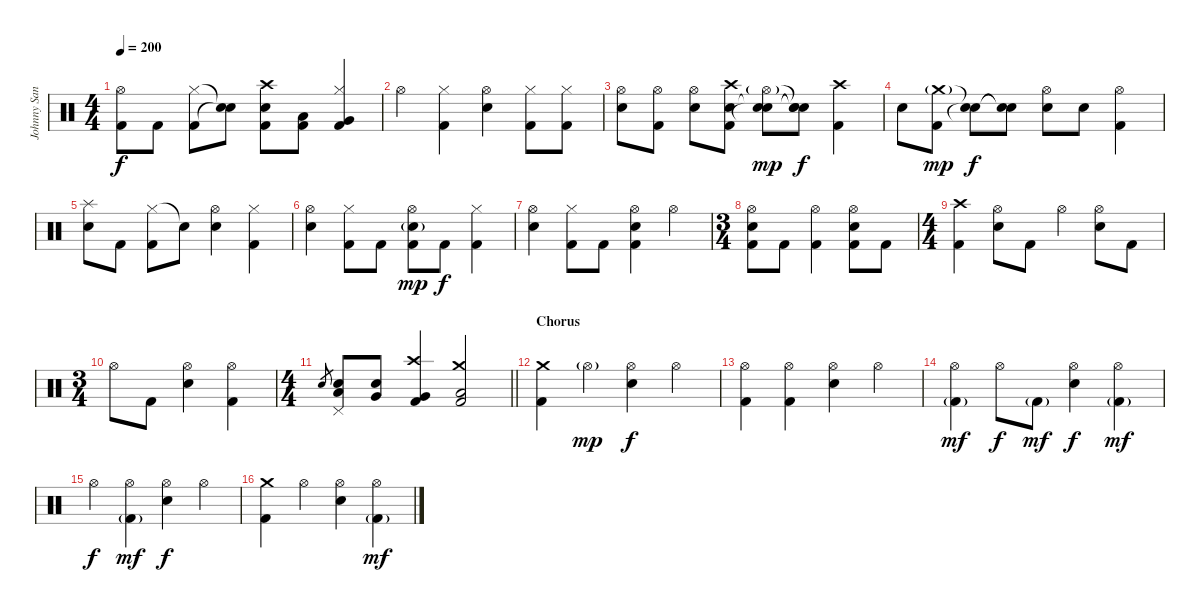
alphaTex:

\track ("Johnny Sandin" "Johnny San") {instrument percussion}
\staff {score}
\articulation defaults
\ts (4 4)
\tempo 200
\clef neutral
\ks c
("Hi-Hat (open)" "Kick (hit) 2").8{dy f} "Kick (hit) 2".8 ("Hi-Hat (closed)" "Kick (hit) 2").8 ("Snare (hit)"{t} "Snare (hit)"{t}).8 ("Crash high (hit)" "Snare (hit) 2" "Kick (hit) 2").8 ("Low Tom (hit)" "Kick (hit) 2").8 ("Hi-Hat (closed)" "Very Low Tom (hit)" "Kick (hit) 2").4 |
"Hi-Hat (open)".4 ("Hi-Hat (closed)" "Kick (hit) 2").4 ("Hi-Hat (open)" "Snare (hit) 2").4 ("Hi-Hat (closed)" "Kick (hit) 2").8 ("Hi-Hat (closed)" "Kick (hit) 2").8 |
("Hi-Hat (open)" "Snare (hit) 2").8 ("Hi-Hat (open)" "Kick (hit) 2").8 ("Hi-Hat (open)" "Snare (hit) 2").8 ("Crash high (hit)" "Snare (hit) 2" "Kick (hit) 2").8 ("Hi-Hat (open)"{g} "Snare (hit)"{t} "Snare (hit)"{t}).8{dy mp} ("Snare (hit)"{t} "Snare (hit)"{t} "Snare (hit)"{t}).8{dy f} ("Crash high (hit)" "Kick (hit) 2").4 |
"Snare (hit) 2".8 ("Crash medium (hit)"{g} "Kick (hit) 2").8{dy mp} ("Snare (hit)"{t} "Snare (hit)"{t}).8{dy f} ("Snare (hit)"{t} "Snare (hit)"{t}).8 ("Hi-Hat (open)" "Snare (hit) 2").8 "Snare (hit) 2".8 ("Hi-Hat (open)" "Kick (hit) 2").4 |
("Splash (hit)" "Snare (hit) 2").8 "Kick (hit) 2".8 ("Hi-Hat (closed)" "Kick (hit) 2").8 "Snare (hit)"{t}.8 ("Hi-Hat (open)" "Snare (hit) 2").4 ("Hi-Hat (closed)" "Kick (hit) 2").4 |
("Hi-Hat (open)" "Snare (hit) 2").4 ("Hi-Hat (closed)" "Kick (hit) 2").8 "Kick (hit) 2".8 ("Hi-Hat (open)" "Snare (hit) 2"{g} "Kick (hit) 2").8{dy mp} "Kick (hit) 2".8{dy f} ("Hi-Hat (closed)" "Kick (hit) 2").4 |
("Hi-Hat (open)" "Snare (hit) 2").4 ("Hi-Hat (closed)" "Kick (hit) 2").8 "Kick (hit) 2".8 ("Hi-Hat (open)" "Snare (hit) 2" "Kick (hit) 2").4 "Hi-Hat (open)".4 |
\ts (3 4)
("Hi-Hat (open)" "Snare (hit) 2" "Kick (hit) 2").8 "Kick (hit) 2".8 ("Hi-Hat (open)" "Kick (hit) 2").4 ("Hi-Hat (open)" "Snare (hit) 2" "Kick (hit) 2").8 "Kick (hit) 2".8 |
\ts (4 4)
("Crash high (hit)" "Kick (hit) 2").4 ("Hi-Hat (open)" "Snare (hit) 2").8 "Kick (hit) 2".8 "Hi-Hat (open)".4 ("Hi-Hat (open)" "Snare (hit) 2").8 "Kick (hit) 2".8 |
\ts (3 4)
"Hi-Hat (open)".8 "Kick (hit) 2".8 ("Hi-Hat (open)" "Snare (hit) 2").4 ("Hi-Hat (open)" "Kick (hit) 2").4 |
\ts (4 4)
\barLineRight lightlight "Snare (hit) 2".8{gr}
("Pedal Hi-Hat (hit)" "Snare (hit) 2" "Low Tom (hit)").8 ("Snare (hit) 2" "Very Low Tom (hit)").8 ("Crash high (hit)" "Very Low Tom (hit)" "Kick (hit) 2").4 ("Crash medium (hit)" "Low Floor Tom (hit)" "Kick (hit) 2").2 |
\section ("" "Chorus")
("Crash medium (hit)" "Kick (hit) 2").4 "Hi-Hat (open)"{g}.4{dy mp} ("Hi-Hat (open)" "Snare (hit) 2").4{dy f} "Hi-Hat (open)".4 |
("Hi-Hat (open)" "Kick (hit) 2").4 ("Hi-Hat (open)" "Kick (hit) 2").4 ("Hi-Hat (open)" "Snare (hit) 2").4 "Hi-Hat (open)".4 |
("Hi-Hat (open)" "Kick (hit) 2"{g}).4{dy mf} "Hi-Hat (open)".8{dy f} "Kick (hit) 2"{g}.8{dy mf} ("Hi-Hat (open)" "Snare (hit) 2").4{dy f} ("Hi-Hat (open)" "Kick (hit) 2"{g}).4{dy mf} |
"Hi-Hat (open)".4{dy f} ("Hi-Hat (open)" "Kick (hit) 2"{g}).4{dy mf} ("Hi-Hat (open)" "Snare (hit) 2").4{dy f} "Hi-Hat (open)".4 |
("Crash medium (hit)" "Kick (hit) 2").4 "Hi-Hat (open)".4 ("Hi-Hat (open)" "Snare (hit) 2").4 ("Hi-Hat (open)" "Kick (hit) 2"{g}).4{dy mf}
